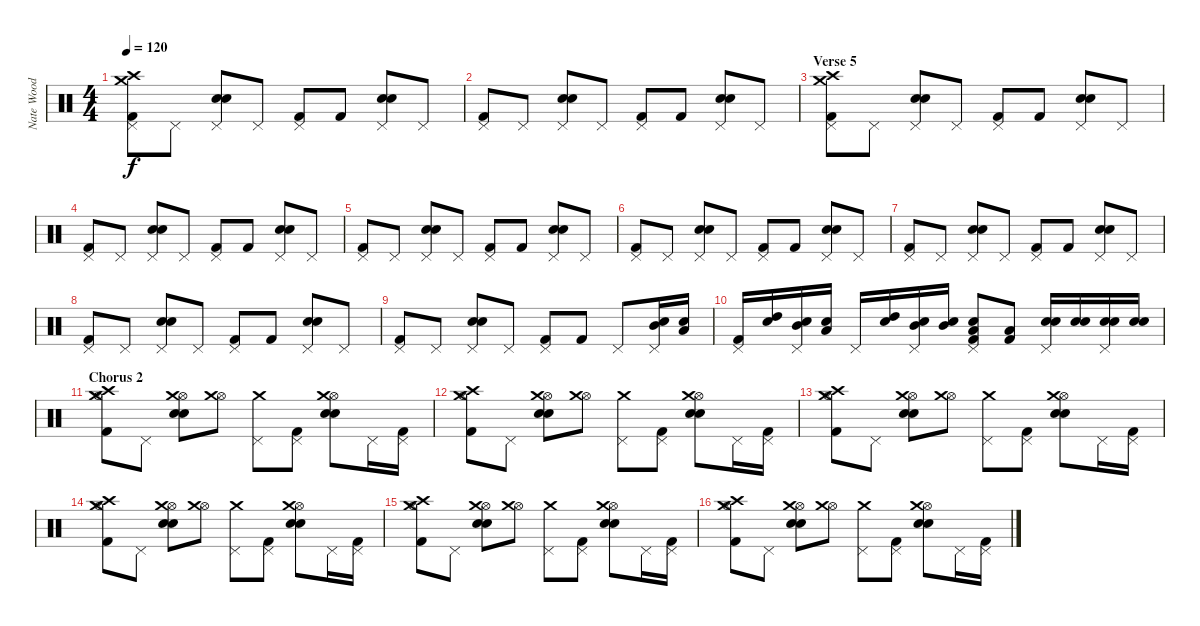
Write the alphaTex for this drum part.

\track ("Nate Wood  (Drums)" "Nate Wood ") {instrument percussion}
\staff {score}
\articulation defaults
\ts (4 4)
\tempo 120
\clef neutral
\ks c
("Pedal Hi-Hat (hit)" "Kick (hit) 2" "Crash medium (hit)" "Crash high (hit)").8{dy f} "Pedal Hi-Hat (hit)".8 ("Pedal Hi-Hat (hit)" "Snare (hit) 2" "Electric Snare (hit)").8 "Pedal Hi-Hat (hit)".8 ("Pedal Hi-Hat (hit)" "Kick (hit) 2").8 "Kick (hit) 2".8 ("Pedal Hi-Hat (hit)" "Snare (hit) 2" "Electric Snare (hit)").8 "Pedal Hi-Hat (hit)".8 |
("Pedal Hi-Hat (hit)" "Kick (hit) 2").8 "Pedal Hi-Hat (hit)".8 ("Pedal Hi-Hat (hit)" "Snare (hit) 2" "Electric Snare (hit)").8 "Pedal Hi-Hat (hit)".8 ("Pedal Hi-Hat (hit)" "Kick (hit) 2").8 "Kick (hit) 2".8 ("Pedal Hi-Hat (hit)" "Snare (hit) 2" "Electric Snare (hit)").8 "Pedal Hi-Hat (hit)".8 |
\section ("" "Verse 5")
("Pedal Hi-Hat (hit)" "Kick (hit) 2" "Crash medium (hit)" "Crash high (hit)").8 "Pedal Hi-Hat (hit)".8 ("Pedal Hi-Hat (hit)" "Snare (hit) 2" "Electric Snare (hit)").8 "Pedal Hi-Hat (hit)".8 ("Pedal Hi-Hat (hit)" "Kick (hit) 2").8 "Kick (hit) 2".8 ("Pedal Hi-Hat (hit)" "Snare (hit) 2" "Electric Snare (hit)").8 "Pedal Hi-Hat (hit)".8 |
("Pedal Hi-Hat (hit)" "Kick (hit) 2").8 "Pedal Hi-Hat (hit)".8 ("Pedal Hi-Hat (hit)" "Snare (hit) 2" "Electric Snare (hit)").8 "Pedal Hi-Hat (hit)".8 ("Pedal Hi-Hat (hit)" "Kick (hit) 2").8 "Kick (hit) 2".8 ("Pedal Hi-Hat (hit)" "Snare (hit) 2" "Electric Snare (hit)").8 "Pedal Hi-Hat (hit)".8 |
("Pedal Hi-Hat (hit)" "Kick (hit) 2").8 "Pedal Hi-Hat (hit)".8 ("Pedal Hi-Hat (hit)" "Snare (hit) 2" "Electric Snare (hit)").8 "Pedal Hi-Hat (hit)".8 ("Pedal Hi-Hat (hit)" "Kick (hit) 2").8 "Kick (hit) 2".8 ("Pedal Hi-Hat (hit)" "Snare (hit) 2" "Electric Snare (hit)").8 "Pedal Hi-Hat (hit)".8 |
("Pedal Hi-Hat (hit)" "Kick (hit) 2").8 "Pedal Hi-Hat (hit)".8 ("Pedal Hi-Hat (hit)" "Snare (hit) 2" "Electric Snare (hit)").8 "Pedal Hi-Hat (hit)".8 ("Pedal Hi-Hat (hit)" "Kick (hit) 2").8 "Kick (hit) 2".8 ("Pedal Hi-Hat (hit)" "Snare (hit) 2" "Electric Snare (hit)").8 "Pedal Hi-Hat (hit)".8 |
("Pedal Hi-Hat (hit)" "Kick (hit) 2").8 "Pedal Hi-Hat (hit)".8 ("Pedal Hi-Hat (hit)" "Snare (hit) 2" "Electric Snare (hit)").8 "Pedal Hi-Hat (hit)".8 ("Pedal Hi-Hat (hit)" "Kick (hit) 2").8 "Kick (hit) 2".8 ("Pedal Hi-Hat (hit)" "Snare (hit) 2" "Electric Snare (hit)").8 "Pedal Hi-Hat (hit)".8 |
("Pedal Hi-Hat (hit)" "Kick (hit) 2").8 "Pedal Hi-Hat (hit)".8 ("Pedal Hi-Hat (hit)" "Snare (hit) 2" "Electric Snare (hit)").8 "Pedal Hi-Hat (hit)".8 ("Pedal Hi-Hat (hit)" "Kick (hit) 2").8 "Kick (hit) 2".8 ("Pedal Hi-Hat (hit)" "Snare (hit) 2" "Electric Snare (hit)").8 "Pedal Hi-Hat (hit)".8 |
("Pedal Hi-Hat (hit)" "Kick (hit) 2").8 "Pedal Hi-Hat (hit)".8 ("Pedal Hi-Hat (hit)" "Snare (hit) 2" "Electric Snare (hit)").8 "Pedal Hi-Hat (hit)".8 ("Pedal Hi-Hat (hit)" "Kick (hit) 2").8 "Kick (hit) 2".8 "Pedal Hi-Hat (hit)".8 ("Pedal Hi-Hat (hit)" "Mid Tom (hit)" "Electric Snare (hit)").16 ("Low Tom (hit)" "Electric Snare (hit)").16 |
("Pedal Hi-Hat (hit)" "Kick (hit) 2").16 ("High Tom (hit)" "Electric Snare (hit)").16 ("Pedal Hi-Hat (hit)" "Mid Tom (hit)" "Electric Snare (hit)").16 ("Low Tom (hit)" "Electric Snare (hit)").16 "Pedal Hi-Hat (hit)".16 ("High Tom (hit)" "Electric Snare (hit)").16 ("Pedal Hi-Hat (hit)" "Mid Tom (hit)" "Electric Snare (hit)").16 ("Mid Tom (hit)" "Electric Snare (hit)").16 ("Pedal Hi-Hat (hit)" "Low Tom (hit)" "Electric Snare (hit)" "Kick (hit) 2").8 ("Low Tom (hit)" "Kick (hit) 2").8 ("Pedal Hi-Hat (hit)" "Snare (hit) 2" "Electric Snare (hit)").16 ("Snare (hit) 2" "Electric Snare (hit)").16 ("Pedal Hi-Hat (hit)" "Snare (hit) 2" "Electric Snare (hit)").16 ("Snare (hit) 2" "Electric Snare (hit)").16 |
\section ("" "Chorus 2")
("Kick (hit) 2" "Hi-Hat (open)" "Crash medium (hit)" "Crash high (hit)").8 "Pedal Hi-Hat (hit)".8 ("Snare (hit) 2" "Electric Snare (hit)" "Hi-Hat (open)" "Crash medium (hit)").8 ("Hi-Hat (open)" "Crash medium (hit)").8 ("Pedal Hi-Hat (hit)" "Crash medium (hit)").8 ("Kick (hit) 2" "Pedal Hi-Hat (hit)").8 ("Snare (hit) 2" "Electric Snare (hit)" "Hi-Hat (open)" "Crash medium (hit)").8 "Pedal Hi-Hat (hit)".16 ("Kick (hit) 2" "Pedal Hi-Hat (hit)").16 |
("Kick (hit) 2" "Hi-Hat (open)" "Crash medium (hit)" "Crash high (hit)").8 "Pedal Hi-Hat (hit)".8 ("Snare (hit) 2" "Electric Snare (hit)" "Hi-Hat (open)" "Crash medium (hit)").8 ("Hi-Hat (open)" "Crash medium (hit)").8 ("Pedal Hi-Hat (hit)" "Crash medium (hit)").8 ("Kick (hit) 2" "Pedal Hi-Hat (hit)").8 ("Snare (hit) 2" "Electric Snare (hit)" "Hi-Hat (open)" "Crash medium (hit)").8 "Pedal Hi-Hat (hit)".16 ("Kick (hit) 2" "Pedal Hi-Hat (hit)").16 |
("Kick (hit) 2" "Hi-Hat (open)" "Crash medium (hit)" "Crash high (hit)").8 "Pedal Hi-Hat (hit)".8 ("Snare (hit) 2" "Electric Snare (hit)" "Hi-Hat (open)" "Crash medium (hit)").8 ("Hi-Hat (open)" "Crash medium (hit)").8 ("Pedal Hi-Hat (hit)" "Crash medium (hit)").8 ("Kick (hit) 2" "Pedal Hi-Hat (hit)").8 ("Snare (hit) 2" "Electric Snare (hit)" "Hi-Hat (open)" "Crash medium (hit)").8 "Pedal Hi-Hat (hit)".16 ("Kick (hit) 2" "Pedal Hi-Hat (hit)").16 |
("Kick (hit) 2" "Hi-Hat (open)" "Crash medium (hit)" "Crash high (hit)").8 "Pedal Hi-Hat (hit)".8 ("Snare (hit) 2" "Electric Snare (hit)" "Hi-Hat (open)" "Crash medium (hit)").8 ("Hi-Hat (open)" "Crash medium (hit)").8 ("Pedal Hi-Hat (hit)" "Crash medium (hit)").8 ("Kick (hit) 2" "Pedal Hi-Hat (hit)").8 ("Snare (hit) 2" "Electric Snare (hit)" "Hi-Hat (open)" "Crash medium (hit)").8 "Pedal Hi-Hat (hit)".16 ("Kick (hit) 2" "Pedal Hi-Hat (hit)").16 |
("Kick (hit) 2" "Hi-Hat (open)" "Crash medium (hit)" "Crash high (hit)").8 "Pedal Hi-Hat (hit)".8 ("Snare (hit) 2" "Electric Snare (hit)" "Hi-Hat (open)" "Crash medium (hit)").8 ("Hi-Hat (open)" "Crash medium (hit)").8 ("Pedal Hi-Hat (hit)" "Crash medium (hit)").8 ("Kick (hit) 2" "Pedal Hi-Hat (hit)").8 ("Snare (hit) 2" "Electric Snare (hit)" "Hi-Hat (open)" "Crash medium (hit)").8 "Pedal Hi-Hat (hit)".16 ("Kick (hit) 2" "Pedal Hi-Hat (hit)").16 |
("Kick (hit) 2" "Hi-Hat (open)" "Crash medium (hit)" "Crash high (hit)").8 "Pedal Hi-Hat (hit)".8 ("Snare (hit) 2" "Electric Snare (hit)" "Hi-Hat (open)" "Crash medium (hit)").8 ("Hi-Hat (open)" "Crash medium (hit)").8 ("Pedal Hi-Hat (hit)" "Crash medium (hit)").8 ("Kick (hit) 2" "Pedal Hi-Hat (hit)").8 ("Snare (hit) 2" "Electric Snare (hit)" "Hi-Hat (open)" "Crash medium (hit)").8 "Pedal Hi-Hat (hit)".16 ("Kick (hit) 2" "Pedal Hi-Hat (hit)").16
